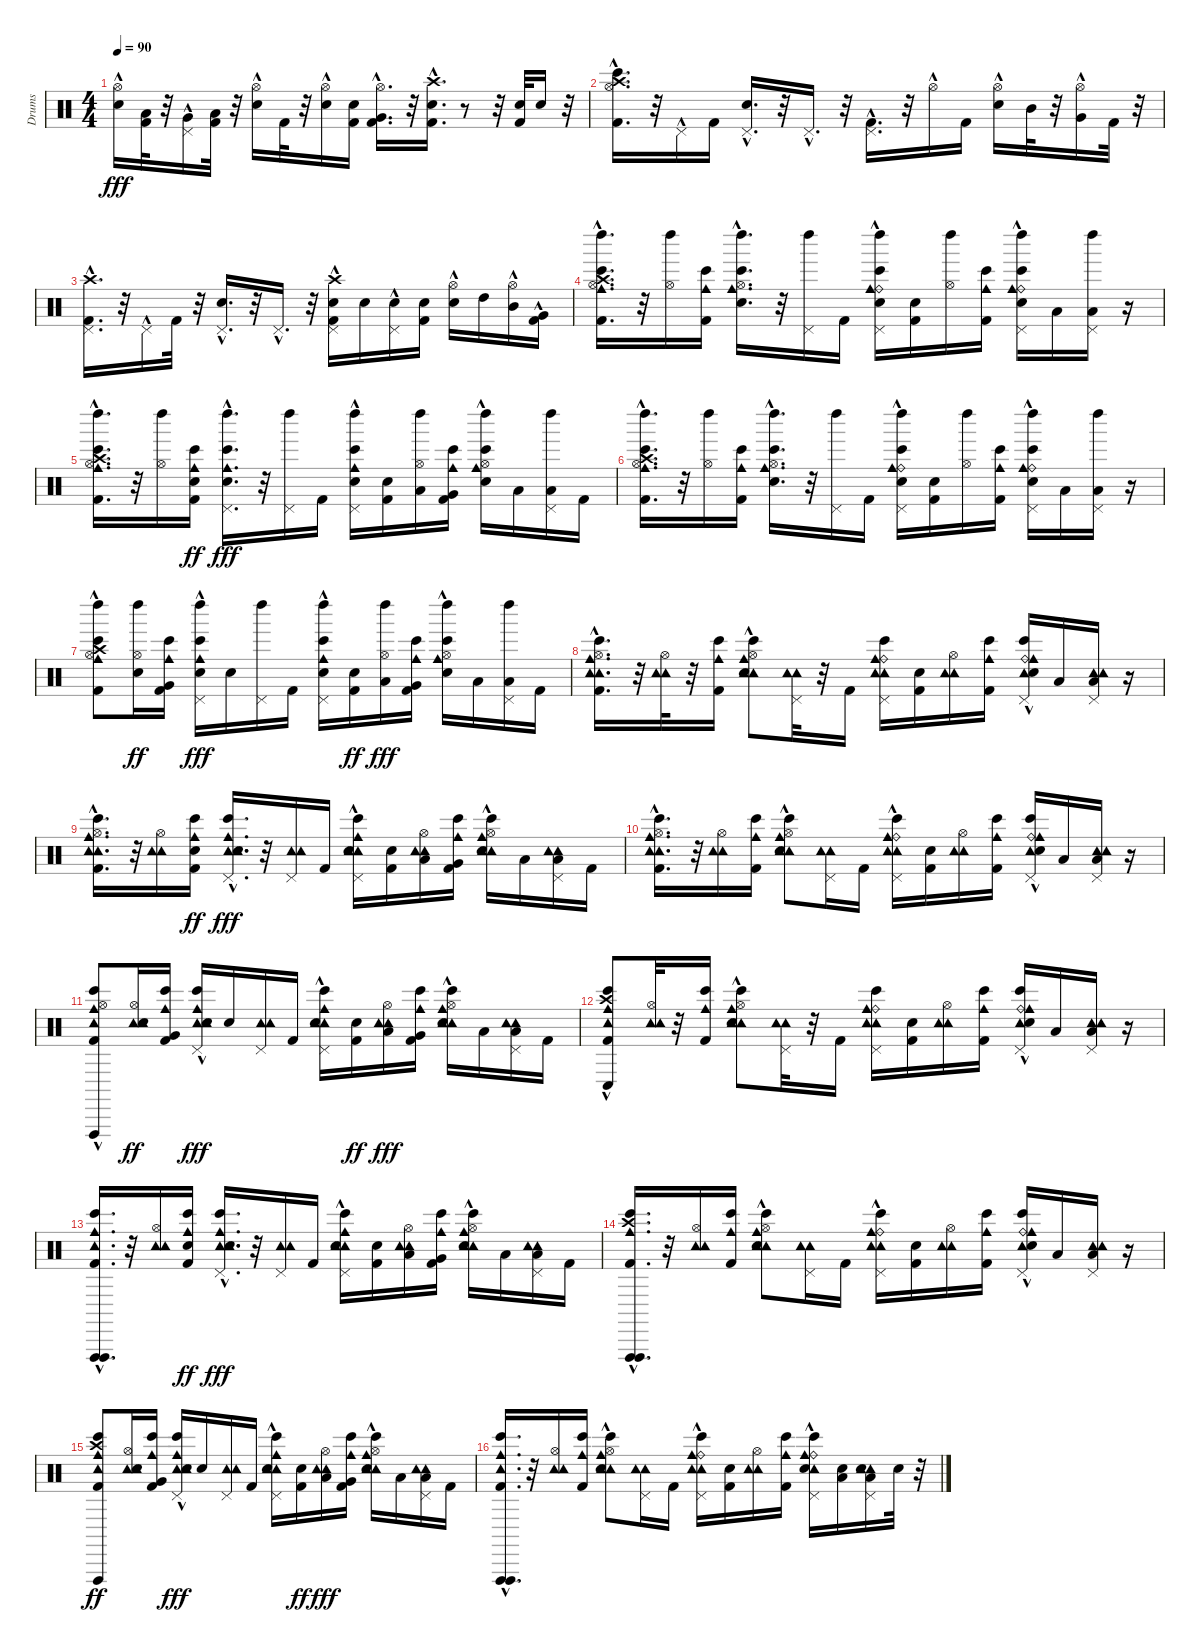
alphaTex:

\track ("Drums" "Drums") {instrument percussion}
\staff {score}
\articulation defaults
\ts (4 4)
\tempo 90
\clef neutral
\ks c
("Hi-Hat (open)"{hac} "Electric Snare (hit)").16{dy fff} ("Kick (hit) 2" "Low Tom (hit)").32 r.32 ("Very Low Tom (hit)" "Pedal Hi-Hat (hit)"{hac}).16 ("Kick (hit) 2" "Low Floor Tom (hit)").32 r.32 ("Hi-Hat (open)"{hac} "Electric Snare (hit)").16 "Kick (hit) 2".32 r.32 ("Electric Snare (hit)" "Hi-Hat (open)"{hac}).16 ("Electric Snare (hit)" "Kick (hit) 2").16 ("Hi-Hat (open)"{hac} "Very Low Tom (hit)" "Kick (hit) 2").16{d} r.32 ("Crash high (hit)"{hac} "Kick (hit) 2"{hac} "Electric Snare (hit)"{hac}).16{d} r.8 r.32 ("Kick (hit) 2" "Electric Snare (hit)").32 "Electric Snare (hit)".16 r.32 |
("Bongo High (hit)" "Crash high (hit)" "Kick (hit) 2"{hac} "Hi-Hat (open)"{hac}).16{d} r.32 "Pedal Hi-Hat (hit)"{hac}.16 "Kick (hit) 2".16 ("Electric Snare (hit)"{hac} "Pedal Hi-Hat (hit)"{hac}).16{d} r.32 "Pedal Hi-Hat (hit)"{hac}.16{d} r.32 ("Kick (hit) 2"{hac} "Pedal Hi-Hat (hit)"{hac}).16{d} r.32 "Hi-Hat (open)"{hac}.16 "Kick (hit) 2".16 ("Electric Snare (hit)" "Hi-Hat (open)"{hac}).16 "Mid Tom (hit)".32 r.32 ("Hi-Hat (open)"{hac} "Very Low Tom (hit)").16 "Kick (hit) 2".32 r.32 |
("Crash high (hit)" "Kick (hit) 2" "Pedal Hi-Hat (hit)"{hac}).16{d} r.32 "Pedal Hi-Hat (hit)"{hac}.16 "Kick (hit) 2".32 r.32 ("Electric Snare (hit)" "Pedal Hi-Hat (hit)"{hac}).16{d} r.32 "Pedal Hi-Hat (hit)"{hac}.16{d} r.32 ("Electric Snare (hit)" "Crash high (hit)" "Kick (hit) 2" "Pedal Hi-Hat (hit)"{hac}).16 "Electric Snare (hit)".16 ("Electric Snare (hit)" "Pedal Hi-Hat (hit)"{hac}).16 ("Electric Snare (hit)" "Kick (hit) 2").16 ("Electric Snare (hit)" "Hi-Hat (open)"{hac}).16 "High Tom (hit)".16 ("Mid Tom (hit)" "Hi-Hat (open)"{hac}).16 ("Very Low Tom (hit)"{hac} "Kick (hit) 2").16 |
("Hi-Hat (open)" "Cowbell medium (hit)" "Bongo High (hit)"{hac} "Crash high (hit)"{hac} "Kick (hit) 2"{hac} "Left Maraca (hit)"{hac}).16{d} r.32 ("Hi-Hat (open)" "Left Maraca (hit)").16 ("Kick (hit) 2" "Bongo High (hit)" "Cowbell medium (hit)").16 ("Hi-Hat (open)" "Cowbell medium (hit)" "Electric Snare (hit)" "Bongo High (hit)"{hac} "Left Maraca (hit)"{hac}).16{d} r.32 ("Pedal Hi-Hat (hit)" "Left Maraca (hit)").16 "Kick (hit) 2".16 ("Pedal Hi-Hat (hit)" "Ride (bell)" "Cowbell medium (hit)" "Bongo High (hit)" "Left Maraca (hit)"{hac} "Electric Snare (hit)").16 ("Kick (hit) 2" "Electric Snare (hit)").16 ("Left Maraca (hit)" "Hi-Hat (open)").16 ("Cowbell medium (hit)" "Kick (hit) 2" "Bongo High (hit)").16 ("Pedal Hi-Hat (hit)" "Ride (bell)" "Cowbell medium (hit)" "Electric Snare (hit)" "Bongo High (hit)" "Left Maraca (hit)"{hac}).16 "Low Tom (hit)".16 ("Pedal Hi-Hat (hit)" "Left Maraca (hit)" "Low Floor Tom (hit)").16 r.16 |
("Hi-Hat (open)" "Cowbell medium (hit)" "Bongo High (hit)"{hac} "Crash high (hit)"{hac} "Kick (hit) 2"{hac} "Left Maraca (hit)"{hac}).16{d} r.32 ("Hi-Hat (open)" "Left Maraca (hit)").16 ("Kick (hit) 2" "Bongo High (hit)" "Cowbell medium (hit)" "Electric Snare (hit)").16{dy ff} ("Pedal Hi-Hat (hit)" "Cowbell medium (hit)" "Electric Snare (hit)" "Bongo High (hit)"{hac} "Left Maraca (hit)"{hac}).16{d dy fff} r.32 ("Pedal Hi-Hat (hit)" "Left Maraca (hit)").16 "Kick (hit) 2".16 ("Pedal Hi-Hat (hit)" "Cowbell medium (hit)" "Bongo High (hit)" "Left Maraca (hit)"{hac} "Electric Snare (hit)").16 ("Kick (hit) 2" "Electric Snare (hit)").16 ("Low Tom (hit)" "Left Maraca (hit)" "Hi-Hat (open)").16 ("Cowbell medium (hit)" "Kick (hit) 2" "Bongo High (hit)" "Very Low Tom (hit)").16 ("Hi-Hat (open)" "Cowbell medium (hit)" "Electric Snare (hit)" "Bongo High (hit)" "Left Maraca (hit)"{hac}).16 "Low Tom (hit)".16 ("Pedal Hi-Hat (hit)" "Left Maraca (hit)" "Low Floor Tom (hit)").16 "Kick (hit) 2".16 |
("Hi-Hat (open)" "Cowbell medium (hit)" "Bongo High (hit)"{hac} "Crash high (hit)"{hac} "Kick (hit) 2"{hac} "Left Maraca (hit)"{hac}).16{d} r.32 ("Hi-Hat (open)" "Left Maraca (hit)").16 ("Kick (hit) 2" "Bongo High (hit)" "Cowbell medium (hit)").16 ("Hi-Hat (open)" "Cowbell medium (hit)" "Electric Snare (hit)" "Bongo High (hit)"{hac} "Left Maraca (hit)"{hac}).16{d} r.32 ("Pedal Hi-Hat (hit)" "Left Maraca (hit)").16 "Kick (hit) 2".16 ("Pedal Hi-Hat (hit)" "Ride (bell)" "Cowbell medium (hit)" "Bongo High (hit)" "Left Maraca (hit)"{hac} "Electric Snare (hit)").16 ("Kick (hit) 2" "Electric Snare (hit)").16 ("Left Maraca (hit)" "Hi-Hat (open)").16 ("Cowbell medium (hit)" "Kick (hit) 2" "Bongo High (hit)").16 ("Pedal Hi-Hat (hit)" "Ride (bell)" "Cowbell medium (hit)" "Electric Snare (hit)" "Bongo High (hit)" "Left Maraca (hit)"{hac}).16 "Low Tom (hit)".16 ("Pedal Hi-Hat (hit)" "Left Maraca (hit)" "Low Floor Tom (hit)").16 r.16 |
("Hi-Hat (open)" "Cowbell medium (hit)" "Bongo High (hit)"{hac} "Crash high (hit)" "Kick (hit) 2"{hac} "Left Maraca (hit)"{hac}).8 ("Hi-Hat (open)" "Left Maraca (hit)" "Electric Snare (hit)").16{dy ff} ("Kick (hit) 2" "Bongo High (hit)" "Cowbell medium (hit)" "Very Low Tom (hit)").16 ("Pedal Hi-Hat (hit)" "Cowbell medium (hit)" "Electric Snare (hit)" "Bongo High (hit)"{hac} "Left Maraca (hit)"{hac}).16{dy fff} "Electric Snare (hit)".16 ("Pedal Hi-Hat (hit)" "Left Maraca (hit)").16 "Kick (hit) 2".16 ("Pedal Hi-Hat (hit)" "Cowbell medium (hit)" "Bongo High (hit)" "Left Maraca (hit)"{hac} "Electric Snare (hit)").16 ("Kick (hit) 2" "Electric Snare (hit)").16{dy ff} ("Low Tom (hit)" "Left Maraca (hit)" "Hi-Hat (open)").16{dy fff} ("Cowbell medium (hit)" "Kick (hit) 2" "Bongo High (hit)" "Very Low Tom (hit)").16 ("Hi-Hat (open)" "Cowbell medium (hit)" "Electric Snare (hit)" "Bongo High (hit)" "Left Maraca (hit)"{hac}).16 "Low Tom (hit)".16 ("Pedal Hi-Hat (hit)" "Left Maraca (hit)" "Low Floor Tom (hit)").16 "Kick (hit) 2".16 |
("Tambourine (hit)" "Hi-Hat (open)" "Cowbell medium (hit)" "Bongo High (hit)"{hac} "Kick (hit) 2"{hac} "Tambourine (hit)").16{d} r.32 ("Tambourine (hit)" "Hi-Hat (open)" "Tambourine (hit)").32 r.32 ("Kick (hit) 2" "Bongo High (hit)" "Cowbell medium (hit)").16 ("Tambourine (hit)" "Hi-Hat (open)" "Cowbell medium (hit)" "Electric Snare (hit)" "Bongo High (hit)"{hac} "Tambourine (hit)").8 ("Tambourine (hit)" "Pedal Hi-Hat (hit)" "Tambourine (hit)").32 r.32 "Kick (hit) 2".16 ("Tambourine (hit)" "Pedal Hi-Hat (hit)" "Ride (bell)" "Cowbell medium (hit)" "Bongo High (hit)" "Tambourine (hit)").16 ("Kick (hit) 2" "Electric Snare (hit)").16 ("Tambourine (hit)" "Tambourine (hit)" "Hi-Hat (open)").16 ("Cowbell medium (hit)" "Kick (hit) 2" "Bongo High (hit)").16 ("Tambourine (hit)"{hac} "Pedal Hi-Hat (hit)" "Ride (bell)" "Cowbell medium (hit)" "Electric Snare (hit)" "Bongo High (hit)").16 "Low Tom (hit)".16 ("Tambourine (hit)" "Pedal Hi-Hat (hit)" "Tambourine (hit)" "Low Floor Tom (hit)").16 r.16 |
("Tambourine (hit)"{hac} "Hi-Hat (open)" "Cowbell medium (hit)" "Bongo High (hit)"{hac} "Kick (hit) 2"{hac} "Tambourine (hit)"{hac}).16{d} r.32 ("Tambourine (hit)" "Hi-Hat (open)" "Tambourine (hit)").16 ("Kick (hit) 2" "Bongo High (hit)" "Cowbell medium (hit)" "Electric Snare (hit)").16{dy ff} ("Tambourine (hit)"{hac} "Pedal Hi-Hat (hit)" "Cowbell medium (hit)" "Electric Snare (hit)" "Bongo High (hit)"{hac} "Tambourine (hit)"{hac}).16{d dy fff} r.32 ("Tambourine (hit)" "Pedal Hi-Hat (hit)" "Tambourine (hit)").16 "Kick (hit) 2".16 ("Tambourine (hit)"{hac} "Pedal Hi-Hat (hit)" "Cowbell medium (hit)" "Bongo High (hit)" "Tambourine (hit)"{hac} "Electric Snare (hit)").16 ("Kick (hit) 2" "Electric Snare (hit)").16 ("Tambourine (hit)" "Low Tom (hit)" "Tambourine (hit)" "Hi-Hat (open)").16 ("Cowbell medium (hit)" "Kick (hit) 2" "Bongo High (hit)" "Very Low Tom (hit)").16 ("Tambourine (hit)"{hac} "Hi-Hat (open)" "Cowbell medium (hit)" "Electric Snare (hit)" "Bongo High (hit)" "Tambourine (hit)"{hac}).16 "Low Tom (hit)".16 ("Tambourine (hit)" "Pedal Hi-Hat (hit)" "Tambourine (hit)" "Low Floor Tom (hit)").16 "Kick (hit) 2".16 |
("Tambourine (hit)"{hac} "Hi-Hat (open)" "Cowbell medium (hit)" "Bongo High (hit)"{hac} "Kick (hit) 2"{hac} "Tambourine (hit)"{hac}).16{d} r.32 ("Tambourine (hit)" "Hi-Hat (open)" "Tambourine (hit)").16 ("Kick (hit) 2" "Bongo High (hit)" "Cowbell medium (hit)").16 ("Tambourine (hit)"{hac} "Hi-Hat (open)" "Cowbell medium (hit)" "Electric Snare (hit)" "Bongo High (hit)"{hac} "Tambourine (hit)"{hac}).8 ("Tambourine (hit)" "Pedal Hi-Hat (hit)" "Tambourine (hit)").16 "Kick (hit) 2".16 ("Tambourine (hit)"{hac} "Pedal Hi-Hat (hit)" "Ride (bell)" "Cowbell medium (hit)" "Bongo High (hit)" "Tambourine (hit)"{hac}).16 ("Kick (hit) 2" "Electric Snare (hit)").16 ("Tambourine (hit)" "Tambourine (hit)" "Hi-Hat (open)").16 ("Cowbell medium (hit)" "Kick (hit) 2" "Bongo High (hit)").16 ("Tambourine (hit)"{hac} "Pedal Hi-Hat (hit)" "Ride (bell)" "Cowbell medium (hit)" "Electric Snare (hit)" "Bongo High (hit)").16 "Low Tom (hit)".16 ("Tambourine (hit)" "Pedal Hi-Hat (hit)" "Tambourine (hit)" "Low Floor Tom (hit)").16 r.16 |
("Tambourine (hit)" "Hi-Hat (open)" "Cowbell medium (hit)" "Bongo High (hit)"{hac} "Kick (hit) 2"{hac} "Vibraslap (hit)").8 ("Tambourine (hit)" "Hi-Hat (open)" "Tambourine (hit)" "Electric Snare (hit)").16{dy ff} ("Kick (hit) 2" "Bongo High (hit)" "Cowbell medium (hit)" "Very Low Tom (hit)").16 ("Tambourine (hit)"{hac} "Pedal Hi-Hat (hit)" "Cowbell medium (hit)" "Electric Snare (hit)" "Bongo High (hit)"{hac} "Tambourine (hit)"{hac}).16{dy fff} "Electric Snare (hit)".16 ("Tambourine (hit)" "Pedal Hi-Hat (hit)" "Tambourine (hit)").16 "Kick (hit) 2".16 ("Tambourine (hit)"{hac} "Pedal Hi-Hat (hit)" "Cowbell medium (hit)" "Bongo High (hit)" "Tambourine (hit)"{hac} "Electric Snare (hit)").16 ("Kick (hit) 2" "Electric Snare (hit)").16{dy ff} ("Tambourine (hit)" "Low Tom (hit)" "Tambourine (hit)" "Hi-Hat (open)").16{dy fff} ("Cowbell medium (hit)" "Kick (hit) 2" "Bongo High (hit)" "Very Low Tom (hit)").16 ("Tambourine (hit)"{hac} "Hi-Hat (open)" "Cowbell medium (hit)" "Electric Snare (hit)" "Bongo High (hit)" "Tambourine (hit)"{hac}).16 "Low Tom (hit)".16 ("Tambourine (hit)" "Pedal Hi-Hat (hit)" "Tambourine (hit)" "Low Floor Tom (hit)").16 "Kick (hit) 2".16 |
("Conga low (hit)" "Tambourine (hit)" "Cowbell medium (hit)" "Bongo High (hit)"{hac} "Kick (hit) 2"{hac} "Crash high (hit)").8 ("Tambourine (hit)" "Hi-Hat (open)" "Tambourine (hit)").32 r.32 ("Kick (hit) 2" "Bongo High (hit)" "Cowbell medium (hit)").16 ("Tambourine (hit)" "Hi-Hat (open)" "Cowbell medium (hit)" "Electric Snare (hit)" "Bongo High (hit)"{hac} "Tambourine (hit)").8 ("Tambourine (hit)" "Pedal Hi-Hat (hit)" "Tambourine (hit)").32 r.32 "Kick (hit) 2".16 ("Tambourine (hit)" "Pedal Hi-Hat (hit)" "Ride (bell)" "Cowbell medium (hit)" "Bongo High (hit)" "Tambourine (hit)").16 ("Kick (hit) 2" "Electric Snare (hit)").16 ("Tambourine (hit)" "Tambourine (hit)" "Hi-Hat (open)").16 ("Cowbell medium (hit)" "Kick (hit) 2" "Bongo High (hit)").16 ("Tambourine (hit)"{hac} "Pedal Hi-Hat (hit)" "Ride (bell)" "Cowbell medium (hit)" "Electric Snare (hit)" "Bongo High (hit)").16 "Low Tom (hit)".16 ("Tambourine (hit)" "Pedal Hi-Hat (hit)" "Tambourine (hit)" "Low Floor Tom (hit)").16 r.16 |
("Tambourine (hit)" "Vibraslap (hit)"{hac} "Cowbell medium (hit)" "Bongo High (hit)"{hac} "Kick (hit) 2"{hac} "Vibraslap (hit)"{hac}).16{d} r.32 ("Tambourine (hit)" "Hi-Hat (open)" "Tambourine (hit)").16 ("Kick (hit) 2" "Bongo High (hit)" "Cowbell medium (hit)" "Electric Snare (hit)").16{dy ff} ("Tambourine (hit)"{hac} "Pedal Hi-Hat (hit)" "Cowbell medium (hit)" "Electric Snare (hit)" "Bongo High (hit)"{hac} "Tambourine (hit)"{hac}).16{d dy fff} r.32 ("Tambourine (hit)" "Pedal Hi-Hat (hit)" "Tambourine (hit)").16 "Kick (hit) 2".16 ("Tambourine (hit)"{hac} "Pedal Hi-Hat (hit)" "Cowbell medium (hit)" "Bongo High (hit)" "Tambourine (hit)"{hac} "Electric Snare (hit)").16 ("Kick (hit) 2" "Electric Snare (hit)").16 ("Tambourine (hit)" "Low Tom (hit)" "Tambourine (hit)" "Hi-Hat (open)").16 ("Cowbell medium (hit)" "Kick (hit) 2" "Bongo High (hit)" "Very Low Tom (hit)").16 ("Tambourine (hit)"{hac} "Hi-Hat (open)" "Cowbell medium (hit)" "Electric Snare (hit)" "Bongo High (hit)" "Tambourine (hit)"{hac}).16 "Low Tom (hit)".16 ("Tambourine (hit)" "Pedal Hi-Hat (hit)" "Tambourine (hit)" "Low Floor Tom (hit)").16 "Kick (hit) 2".16 |
("Vibraslap (hit)"{hac} "Vibraslap (hit)"{hac} "Cowbell medium (hit)" "Bongo High (hit)"{hac} "Crash high (hit)"{hac} "Kick (hit) 2"{hac}).16{d} r.32 ("Tambourine (hit)" "Hi-Hat (open)" "Tambourine (hit)").16 ("Kick (hit) 2" "Bongo High (hit)" "Cowbell medium (hit)").16 ("Tambourine (hit)"{hac} "Hi-Hat (open)" "Cowbell medium (hit)" "Electric Snare (hit)" "Bongo High (hit)"{hac} "Tambourine (hit)"{hac}).8 ("Tambourine (hit)" "Pedal Hi-Hat (hit)" "Tambourine (hit)").16 "Kick (hit) 2".16 ("Tambourine (hit)"{hac} "Pedal Hi-Hat (hit)" "Ride (bell)" "Cowbell medium (hit)" "Bongo High (hit)" "Tambourine (hit)"{hac}).16 ("Kick (hit) 2" "Electric Snare (hit)").16 ("Tambourine (hit)" "Tambourine (hit)" "Hi-Hat (open)").16 ("Cowbell medium (hit)" "Kick (hit) 2" "Bongo High (hit)").16 ("Tambourine (hit)"{hac} "Pedal Hi-Hat (hit)" "Ride (bell)" "Cowbell medium (hit)" "Electric Snare (hit)" "Bongo High (hit)").16 "Low Tom (hit)".16 ("Tambourine (hit)" "Pedal Hi-Hat (hit)" "Tambourine (hit)" "Low Floor Tom (hit)").16 r.16 |
("Tambourine (hit)" "Vibraslap (hit)" "Cowbell medium (hit)" "Bongo High (hit)" "Kick (hit) 2" "Crash high (hit)").8{dy ff} ("Tambourine (hit)" "Hi-Hat (open)" "Tambourine (hit)" "Electric Snare (hit)").16 ("Kick (hit) 2" "Bongo High (hit)" "Cowbell medium (hit)" "Very Low Tom (hit)").16 ("Tambourine (hit)"{hac} "Pedal Hi-Hat (hit)" "Cowbell medium (hit)" "Electric Snare (hit)" "Bongo High (hit)"{hac} "Tambourine (hit)"{hac}).16{dy fff} "Electric Snare (hit)".16 ("Tambourine (hit)" "Pedal Hi-Hat (hit)" "Tambourine (hit)").16 "Kick (hit) 2".16 ("Tambourine (hit)"{hac} "Pedal Hi-Hat (hit)" "Cowbell medium (hit)" "Bongo High (hit)" "Tambourine (hit)"{hac} "Electric Snare (hit)").16 ("Kick (hit) 2" "Electric Snare (hit)").16{dy ff} ("Tambourine (hit)" "Low Tom (hit)" "Tambourine (hit)" "Hi-Hat (open)").16{dy fff} ("Cowbell medium (hit)" "Kick (hit) 2" "Bongo High (hit)" "Very Low Tom (hit)").16 ("Tambourine (hit)"{hac} "Hi-Hat (open)" "Cowbell medium (hit)" "Electric Snare (hit)" "Bongo High (hit)" "Tambourine (hit)"{hac}).16 "Low Tom (hit)".16 ("Tambourine (hit)" "Pedal Hi-Hat (hit)" "Tambourine (hit)" "Low Floor Tom (hit)").16 "Kick (hit) 2".16 |
("Vibraslap (hit)" "Tambourine (hit)" "Vibraslap (hit)" "Cowbell medium (hit)" "Bongo High (hit)"{hac} "Kick (hit) 2"{hac}).16{d} r.32 ("Tambourine (hit)" "Hi-Hat (open)" "Tambourine (hit)").16 ("Kick (hit) 2" "Bongo High (hit)" "Cowbell medium (hit)").16 ("Tambourine (hit)"{hac} "Hi-Hat (open)" "Cowbell medium (hit)" "Electric Snare (hit)" "Bongo High (hit)"{hac} "Tambourine (hit)"{hac}).8 ("Tambourine (hit)" "Pedal Hi-Hat (hit)" "Tambourine (hit)").16 "Kick (hit) 2".16 ("Tambourine (hit)"{hac} "Pedal Hi-Hat (hit)" "Ride (bell)" "Cowbell medium (hit)" "Bongo High (hit)" "Tambourine (hit)"{hac}).16 ("Kick (hit) 2" "Electric Snare (hit)").16 ("Tambourine (hit)" "Tambourine (hit)" "Hi-Hat (open)").16 ("Cowbell medium (hit)" "Kick (hit) 2" "Bongo High (hit)").16 ("Tambourine (hit)"{hac} "Pedal Hi-Hat (hit)" "Ride (bell)" "Cowbell medium (hit)" "Electric Snare (hit)" "Bongo High (hit)").16 ("Low Tom (hit)" "Electric Snare (hit)").16 ("Tambourine (hit)" "Pedal Hi-Hat (hit)" "Tambourine (hit)" "Low Floor Tom (hit)" "Electric Snare (hit)").16 "Electric Snare (hit)".32 r.32
